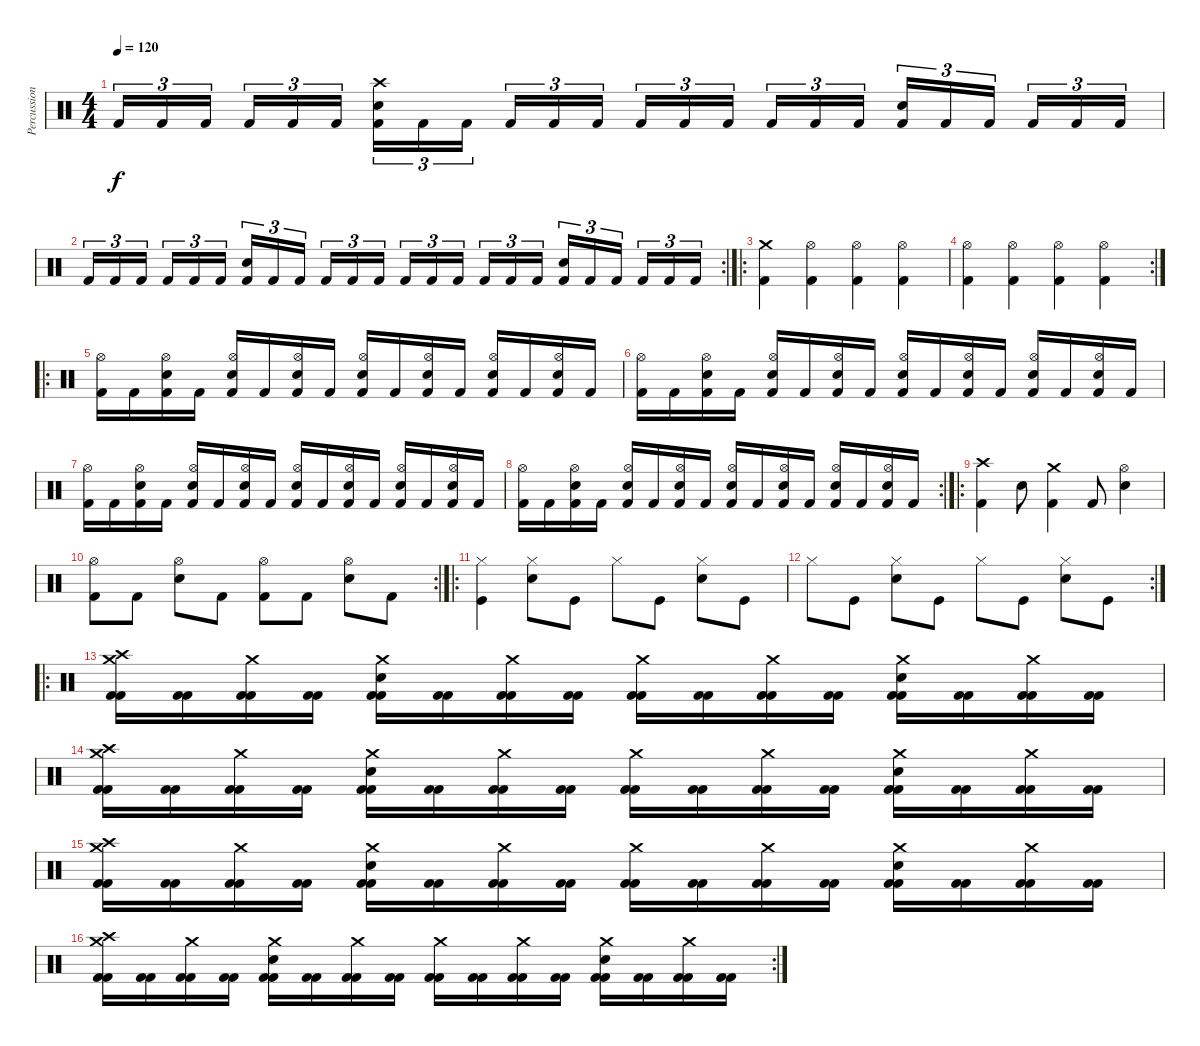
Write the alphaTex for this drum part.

\track ("Percussions" "Percussion") {instrument percussion}
\staff {score}
\articulation defaults
\ts (4 4)
\tempo 120
\clef neutral
\ks c "Kick (hit) 2".16{tu (3 2) dy f} "Kick (hit) 2".16{tu (3 2)} "Kick (hit) 2".16{tu (3 2) beam splitsecondary} "Kick (hit) 2".16{tu (3 2)} "Kick (hit) 2".16{tu (3 2)} "Kick (hit) 2".16{tu (3 2)}
("Snare (hit) 2" "Crash high (hit)" "Kick (hit) 2").16{tu (3 2)} "Kick (hit) 2".16{tu (3 2)} "Kick (hit) 2".16{tu (3 2) beam splitsecondary} "Kick (hit) 2".16{tu (3 2)} "Kick (hit) 2".16{tu (3 2)} "Kick (hit) 2".16{tu (3 2)} "Kick (hit) 2".16{tu (3 2)} "Kick (hit) 2".16{tu (3 2)} "Kick (hit) 2".16{tu (3 2) beam splitsecondary} "Kick (hit) 2".16{tu (3 2)} "Kick (hit) 2".16{tu (3 2)} "Kick (hit) 2".16{tu (3 2)} ("Snare (hit) 2" "Kick (hit) 2").16{tu (3 2)} "Kick (hit) 2".16{tu (3 2)} "Kick (hit) 2".16{tu (3 2) beam splitsecondary} "Kick (hit) 2".16{tu (3 2)} "Kick (hit) 2".16{tu (3 2)} "Kick (hit) 2".16{tu (3 2)} |
\rc 2 "Kick (hit) 2".16{tu (3 2)} "Kick (hit) 2".16{tu (3 2)} "Kick (hit) 2".16{tu (3 2) beam splitsecondary} "Kick (hit) 2".16{tu (3 2)} "Kick (hit) 2".16{tu (3 2)} "Kick (hit) 2".16{tu (3 2)}
("Snare (hit) 2" "Kick (hit) 2").16{tu (3 2)} "Kick (hit) 2".16{tu (3 2)} "Kick (hit) 2".16{tu (3 2) beam splitsecondary} "Kick (hit) 2".16{tu (3 2)} "Kick (hit) 2".16{tu (3 2)} "Kick (hit) 2".16{tu (3 2)} "Kick (hit) 2".16{tu (3 2)} "Kick (hit) 2".16{tu (3 2)} "Kick (hit) 2".16{tu (3 2) beam splitsecondary} "Kick (hit) 2".16{tu (3 2)} "Kick (hit) 2".16{tu (3 2)} "Kick (hit) 2".16{tu (3 2)} ("Snare (hit) 2" "Kick (hit) 2").16{tu (3 2)} "Kick (hit) 2".16{tu (3 2)} "Kick (hit) 2".16{tu (3 2) beam splitsecondary} "Kick (hit) 2".16{tu (3 2)} "Kick (hit) 2".16{tu (3 2)} "Kick (hit) 2".16{tu (3 2)} |
\ro
("Crash medium (hit)" "Kick (hit) 2").4 ("Hi-Hat (open)" "Kick (hit) 2").4 ("Hi-Hat (open)" "Kick (hit) 2").4 ("Hi-Hat (open)" "Kick (hit) 2").4 |
\rc 2
("Hi-Hat (open)" "Kick (hit) 2").4 ("Hi-Hat (open)" "Kick (hit) 2").4 ("Hi-Hat (open)" "Kick (hit) 2").4 ("Hi-Hat (open)" "Kick (hit) 2").4 |
\ro
("Hi-Hat (open)" "Kick (hit) 2").16 "Kick (hit) 2".16 ("Hi-Hat (open)" "Electric Snare (hit)" "Kick (hit) 2").16 "Kick (hit) 2".16 ("Hi-Hat (open)" "Electric Snare (hit)" "Kick (hit) 2").16 "Kick (hit) 2".16 ("Hi-Hat (open)" "Electric Snare (hit)" "Kick (hit) 2").16 "Kick (hit) 2".16 ("Hi-Hat (open)" "Electric Snare (hit)" "Kick (hit) 2").16 "Kick (hit) 2".16 ("Hi-Hat (open)" "Electric Snare (hit)" "Kick (hit) 2").16 "Kick (hit) 2".16 ("Hi-Hat (open)" "Electric Snare (hit)" "Kick (hit) 2").16 "Kick (hit) 2".16 ("Hi-Hat (open)" "Electric Snare (hit)" "Kick (hit) 2").16 "Kick (hit) 2".16 |
("Hi-Hat (open)" "Kick (hit) 2").16 "Kick (hit) 2".16 ("Hi-Hat (open)" "Electric Snare (hit)" "Kick (hit) 2").16 "Kick (hit) 2".16 ("Hi-Hat (open)" "Electric Snare (hit)" "Kick (hit) 2").16 "Kick (hit) 2".16 ("Hi-Hat (open)" "Electric Snare (hit)" "Kick (hit) 2").16 "Kick (hit) 2".16 ("Hi-Hat (open)" "Electric Snare (hit)" "Kick (hit) 2").16 "Kick (hit) 2".16 ("Hi-Hat (open)" "Electric Snare (hit)" "Kick (hit) 2").16 "Kick (hit) 2".16 ("Hi-Hat (open)" "Electric Snare (hit)" "Kick (hit) 2").16 "Kick (hit) 2".16 ("Hi-Hat (open)" "Electric Snare (hit)" "Kick (hit) 2").16 "Kick (hit) 2".16 |
("Hi-Hat (open)" "Kick (hit) 2").16 "Kick (hit) 2".16 ("Hi-Hat (open)" "Electric Snare (hit)" "Kick (hit) 2").16 "Kick (hit) 2".16 ("Hi-Hat (open)" "Electric Snare (hit)" "Kick (hit) 2").16 "Kick (hit) 2".16 ("Hi-Hat (open)" "Electric Snare (hit)" "Kick (hit) 2").16 "Kick (hit) 2".16 ("Hi-Hat (open)" "Electric Snare (hit)" "Kick (hit) 2").16 "Kick (hit) 2".16 ("Hi-Hat (open)" "Electric Snare (hit)" "Kick (hit) 2").16 "Kick (hit) 2".16 ("Hi-Hat (open)" "Electric Snare (hit)" "Kick (hit) 2").16 "Kick (hit) 2".16 ("Hi-Hat (open)" "Electric Snare (hit)" "Kick (hit) 2").16 "Kick (hit) 2".16 |
\rc 2
("Hi-Hat (open)" "Kick (hit) 2").16 "Kick (hit) 2".16 ("Hi-Hat (open)" "Electric Snare (hit)" "Kick (hit) 2").16 "Kick (hit) 2".16 ("Hi-Hat (open)" "Electric Snare (hit)" "Kick (hit) 2").16 "Kick (hit) 2".16 ("Hi-Hat (open)" "Electric Snare (hit)" "Kick (hit) 2").16 "Kick (hit) 2".16 ("Hi-Hat (open)" "Electric Snare (hit)" "Kick (hit) 2").16 "Kick (hit) 2".16 ("Hi-Hat (open)" "Electric Snare (hit)" "Kick (hit) 2").16 "Kick (hit) 2".16 ("Hi-Hat (open)" "Electric Snare (hit)" "Kick (hit) 2").16 "Kick (hit) 2".16 ("Hi-Hat (open)" "Electric Snare (hit)" "Kick (hit) 2").16 "Kick (hit) 2".16 |
\ro
("Crash high (hit)" "Kick (hit) 2").4 "Electric Snare (hit)".8 ("Crash medium (hit)" "Kick (hit) 2").4 "Kick (hit) 2".8 ("Hi-Hat (open)" "Electric Snare (hit)").4 |
\rc 2
("Hi-Hat (open)" "Kick (hit) 2").8 "Kick (hit) 2".8 ("Hi-Hat (open)" "Electric Snare (hit)").8 "Kick (hit) 2".8 ("Hi-Hat (open)" "Kick (hit) 2").8 "Kick (hit) 2".8 ("Hi-Hat (open)" "Electric Snare (hit)").8 "Kick (hit) 2".8 |
\ro
("Hi-Hat (closed)" "Kick (hit)").4 ("Hi-Hat (closed)" "Electric Snare (hit)").8 "Kick (hit)".8 "Hi-Hat (closed)".8 "Kick (hit)".8 ("Hi-Hat (closed)" "Electric Snare (hit)").8 "Kick (hit)".8 |
\rc 2 "Hi-Hat (closed)".8 "Kick (hit)".8
("Hi-Hat (closed)" "Electric Snare (hit)").8 "Kick (hit)".8 "Hi-Hat (closed)".8 "Kick (hit)".8 ("Hi-Hat (closed)" "Electric Snare (hit)").8 "Kick (hit)".8 |
\ro
("Kick (hit) 2" "Crash medium (hit)" "Crash high (hit)" "Kick (hit) 2").16 ("Kick (hit) 2" "Kick (hit) 2").16 ("Kick (hit) 2" "Crash medium (hit)" "Kick (hit) 2").16 ("Kick (hit) 2" "Kick (hit) 2").16 ("Kick (hit) 2" "Crash medium (hit)" "Electric Snare (hit)" "Kick (hit) 2").16 ("Kick (hit) 2" "Kick (hit) 2").16 ("Kick (hit) 2" "Crash medium (hit)" "Kick (hit) 2").16 ("Kick (hit) 2" "Kick (hit) 2").16 ("Kick (hit) 2" "Crash medium (hit)" "Kick (hit) 2").16 ("Kick (hit) 2" "Kick (hit) 2").16 ("Kick (hit) 2" "Crash medium (hit)" "Kick (hit) 2").16 ("Kick (hit) 2" "Kick (hit) 2").16 ("Kick (hit) 2" "Crash medium (hit)" "Electric Snare (hit)" "Kick (hit) 2").16 ("Kick (hit) 2" "Kick (hit) 2").16 ("Kick (hit) 2" "Crash medium (hit)" "Kick (hit) 2").16 ("Kick (hit) 2" "Kick (hit) 2").16 |
("Kick (hit) 2" "Crash medium (hit)" "Crash high (hit)" "Kick (hit) 2").16 ("Kick (hit) 2" "Kick (hit) 2").16 ("Kick (hit) 2" "Crash medium (hit)" "Kick (hit) 2").16 ("Kick (hit) 2" "Kick (hit) 2").16 ("Kick (hit) 2" "Crash medium (hit)" "Electric Snare (hit)" "Kick (hit) 2").16 ("Kick (hit) 2" "Kick (hit) 2").16 ("Kick (hit) 2" "Crash medium (hit)" "Kick (hit) 2").16 ("Kick (hit) 2" "Kick (hit) 2").16 ("Kick (hit) 2" "Crash medium (hit)" "Kick (hit) 2").16 ("Kick (hit) 2" "Kick (hit) 2").16 ("Kick (hit) 2" "Crash medium (hit)" "Kick (hit) 2").16 ("Kick (hit) 2" "Kick (hit) 2").16 ("Kick (hit) 2" "Crash medium (hit)" "Electric Snare (hit)" "Kick (hit) 2").16 ("Kick (hit) 2" "Kick (hit) 2").16 ("Kick (hit) 2" "Crash medium (hit)" "Kick (hit) 2").16 ("Kick (hit) 2" "Kick (hit) 2").16 |
("Kick (hit) 2" "Crash medium (hit)" "Crash high (hit)" "Kick (hit) 2").16 ("Kick (hit) 2" "Kick (hit) 2").16 ("Kick (hit) 2" "Crash medium (hit)" "Kick (hit) 2").16 ("Kick (hit) 2" "Kick (hit) 2").16 ("Kick (hit) 2" "Crash medium (hit)" "Electric Snare (hit)" "Kick (hit) 2").16 ("Kick (hit) 2" "Kick (hit) 2").16 ("Kick (hit) 2" "Crash medium (hit)" "Kick (hit) 2").16 ("Kick (hit) 2" "Kick (hit) 2").16 ("Kick (hit) 2" "Crash medium (hit)" "Kick (hit) 2").16 ("Kick (hit) 2" "Kick (hit) 2").16 ("Kick (hit) 2" "Crash medium (hit)" "Kick (hit) 2").16 ("Kick (hit) 2" "Kick (hit) 2").16 ("Kick (hit) 2" "Crash medium (hit)" "Electric Snare (hit)" "Kick (hit) 2").16 ("Kick (hit) 2" "Kick (hit) 2").16 ("Kick (hit) 2" "Crash medium (hit)" "Kick (hit) 2").16 ("Kick (hit) 2" "Kick (hit) 2").16 |
\rc 2
("Kick (hit) 2" "Crash medium (hit)" "Crash high (hit)" "Kick (hit) 2").16 ("Kick (hit) 2" "Kick (hit) 2").16 ("Kick (hit) 2" "Crash medium (hit)" "Kick (hit) 2").16 ("Kick (hit) 2" "Kick (hit) 2").16 ("Kick (hit) 2" "Crash medium (hit)" "Electric Snare (hit)" "Kick (hit) 2").16 ("Kick (hit) 2" "Kick (hit) 2").16 ("Kick (hit) 2" "Crash medium (hit)" "Kick (hit) 2").16 ("Kick (hit) 2" "Kick (hit) 2").16 ("Kick (hit) 2" "Crash medium (hit)" "Kick (hit) 2").16 ("Kick (hit) 2" "Kick (hit) 2").16 ("Kick (hit) 2" "Crash medium (hit)" "Kick (hit) 2").16 ("Kick (hit) 2" "Kick (hit) 2").16 ("Kick (hit) 2" "Crash medium (hit)" "Electric Snare (hit)" "Kick (hit) 2").16 ("Kick (hit) 2" "Kick (hit) 2").16 ("Kick (hit) 2" "Crash medium (hit)" "Kick (hit) 2").16 ("Kick (hit) 2" "Kick (hit) 2").16
